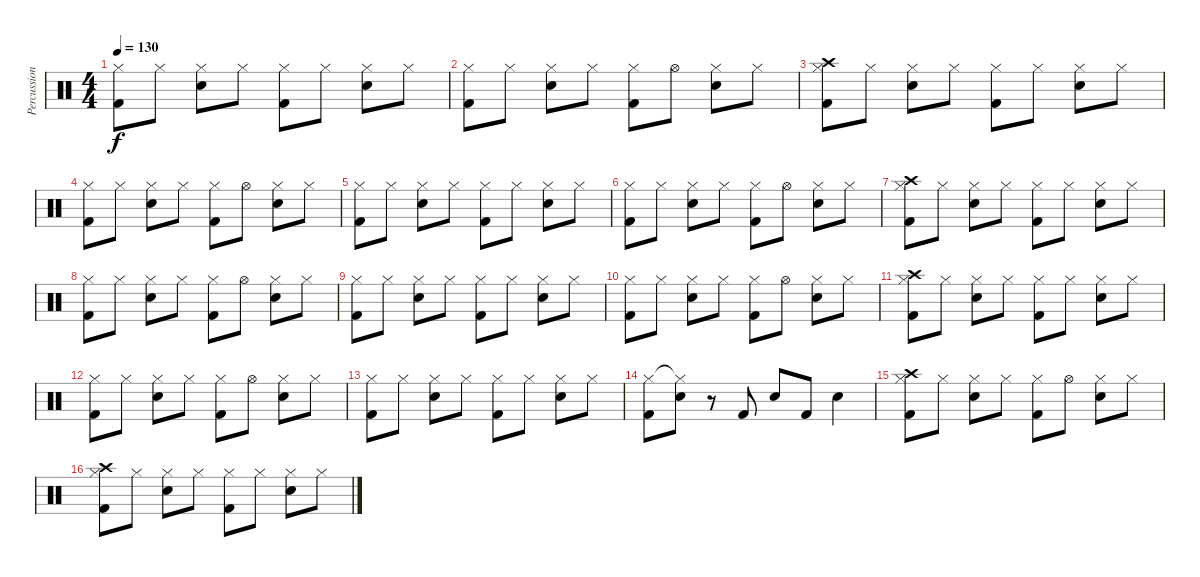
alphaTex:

\track ("Percussion" "Percussion") {instrument percussion}
\staff {score}
\articulation defaults
\ts (4 4)
\tempo 130
\clef neutral
\ks c
("Hi-Hat (closed)" "Kick (hit) 2").8{dy f} "Hi-Hat (closed)".8 ("Hi-Hat (closed)" "Electric Snare (hit)").8 "Hi-Hat (closed)".8 ("Hi-Hat (closed)" "Kick (hit) 2").8 "Hi-Hat (closed)".8 ("Hi-Hat (closed)" "Electric Snare (hit)").8 "Hi-Hat (closed)".8 |
("Hi-Hat (closed)" "Kick (hit) 2").8 "Hi-Hat (closed)".8 ("Hi-Hat (closed)" "Electric Snare (hit)").8 "Hi-Hat (closed)".8 ("Hi-Hat (closed)" "Kick (hit) 2").8 "Hi-Hat (open)".8 ("Hi-Hat (closed)" "Electric Snare (hit)").8 "Hi-Hat (closed)".8 |
("Crash high (hit)" "Hi-Hat (closed)" "Kick (hit) 2").8 "Hi-Hat (closed)".8 ("Hi-Hat (closed)" "Electric Snare (hit)").8 "Hi-Hat (closed)".8 ("Hi-Hat (closed)" "Kick (hit) 2").8 "Hi-Hat (closed)".8 ("Hi-Hat (closed)" "Electric Snare (hit)").8 "Hi-Hat (closed)".8 |
("Hi-Hat (closed)" "Kick (hit) 2").8 "Hi-Hat (closed)".8 ("Hi-Hat (closed)" "Electric Snare (hit)").8 "Hi-Hat (closed)".8 ("Hi-Hat (closed)" "Kick (hit) 2").8 "Hi-Hat (open)".8 ("Hi-Hat (closed)" "Electric Snare (hit)").8 "Hi-Hat (closed)".8 |
("Hi-Hat (closed)" "Kick (hit) 2").8 "Hi-Hat (closed)".8 ("Hi-Hat (closed)" "Electric Snare (hit)").8 "Hi-Hat (closed)".8 ("Hi-Hat (closed)" "Kick (hit) 2").8 "Hi-Hat (closed)".8 ("Hi-Hat (closed)" "Electric Snare (hit)").8 "Hi-Hat (closed)".8 |
("Hi-Hat (closed)" "Kick (hit) 2").8 "Hi-Hat (closed)".8 ("Hi-Hat (closed)" "Electric Snare (hit)").8 "Hi-Hat (closed)".8 ("Hi-Hat (closed)" "Kick (hit) 2").8 "Hi-Hat (open)".8 ("Hi-Hat (closed)" "Electric Snare (hit)").8 "Hi-Hat (closed)".8 |
("Crash high (hit)" "Hi-Hat (closed)" "Kick (hit) 2").8 "Hi-Hat (closed)".8 ("Hi-Hat (closed)" "Electric Snare (hit)").8 "Hi-Hat (closed)".8 ("Hi-Hat (closed)" "Kick (hit) 2").8 "Hi-Hat (closed)".8 ("Hi-Hat (closed)" "Electric Snare (hit)").8 "Hi-Hat (closed)".8 |
("Hi-Hat (closed)" "Kick (hit) 2").8 "Hi-Hat (closed)".8 ("Hi-Hat (closed)" "Electric Snare (hit)").8 "Hi-Hat (closed)".8 ("Hi-Hat (closed)" "Kick (hit) 2").8 "Hi-Hat (open)".8 ("Hi-Hat (closed)" "Electric Snare (hit)").8 "Hi-Hat (closed)".8 |
("Hi-Hat (closed)" "Kick (hit) 2").8 "Hi-Hat (closed)".8 ("Hi-Hat (closed)" "Electric Snare (hit)").8 "Hi-Hat (closed)".8 ("Hi-Hat (closed)" "Kick (hit) 2").8 "Hi-Hat (closed)".8 ("Hi-Hat (closed)" "Electric Snare (hit)").8 "Hi-Hat (closed)".8 |
("Hi-Hat (closed)" "Kick (hit) 2").8 "Hi-Hat (closed)".8 ("Hi-Hat (closed)" "Electric Snare (hit)").8 "Hi-Hat (closed)".8 ("Hi-Hat (closed)" "Kick (hit) 2").8 "Hi-Hat (open)".8 ("Hi-Hat (closed)" "Electric Snare (hit)").8 "Hi-Hat (closed)".8 |
("Crash high (hit)" "Hi-Hat (closed)" "Kick (hit) 2").8 "Hi-Hat (closed)".8 ("Hi-Hat (closed)" "Electric Snare (hit)").8 "Hi-Hat (closed)".8 ("Hi-Hat (closed)" "Kick (hit) 2").8 "Hi-Hat (closed)".8 ("Hi-Hat (closed)" "Electric Snare (hit)").8 "Hi-Hat (closed)".8 |
("Hi-Hat (closed)" "Kick (hit) 2").8 "Hi-Hat (closed)".8 ("Hi-Hat (closed)" "Electric Snare (hit)").8 "Hi-Hat (closed)".8 ("Hi-Hat (closed)" "Kick (hit) 2").8 "Hi-Hat (open)".8 ("Hi-Hat (closed)" "Electric Snare (hit)").8 "Hi-Hat (closed)".8 |
("Hi-Hat (closed)" "Kick (hit) 2").8 "Hi-Hat (closed)".8 ("Hi-Hat (closed)" "Electric Snare (hit)").8 "Hi-Hat (closed)".8 ("Hi-Hat (closed)" "Kick (hit) 2").8 "Hi-Hat (closed)".8 ("Hi-Hat (closed)" "Electric Snare (hit)").8 "Hi-Hat (closed)".8 |
("Hi-Hat (closed)" "Kick (hit) 2").8 ("Hi-Hat (closed)"{t} "Electric Snare (hit)").8 r.8 "Kick (hit) 2".8 "Electric Snare (hit)".8 "Kick (hit) 2".8 "Electric Snare (hit)".4 |
("Crash high (hit)" "Hi-Hat (closed)" "Kick (hit) 2").8 "Hi-Hat (closed)".8 ("Hi-Hat (closed)" "Electric Snare (hit)").8 "Hi-Hat (closed)".8 ("Hi-Hat (closed)" "Kick (hit) 2").8 "Hi-Hat (open)".8 ("Hi-Hat (closed)" "Electric Snare (hit)").8 "Hi-Hat (closed)".8 |
("Crash high (hit)" "Hi-Hat (closed)" "Kick (hit) 2").8 "Hi-Hat (closed)".8 ("Hi-Hat (closed)" "Electric Snare (hit)").8 "Hi-Hat (closed)".8 ("Hi-Hat (closed)" "Kick (hit) 2").8 "Hi-Hat (closed)".8 ("Hi-Hat (closed)" "Electric Snare (hit)").8 "Hi-Hat (closed)".8
